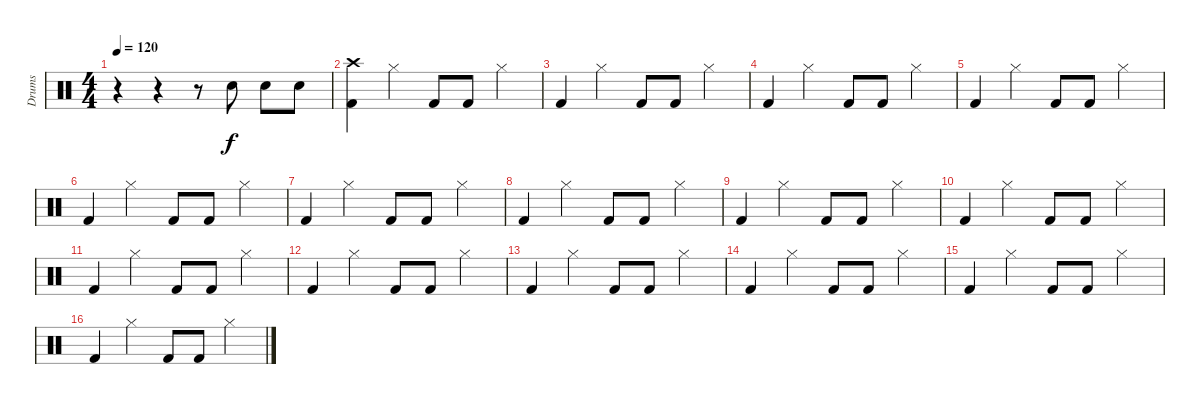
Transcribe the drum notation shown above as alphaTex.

\track ("Drums" "Drums") {instrument percussion}
\staff {score}
\articulation defaults
\ts (4 4)
\tempo 120
\clef neutral
\ks c
r.4{dy f} r.4 r.8 "Snare (hit) 2".8 "Snare (hit) 2".8 "Electric Snare (hit)".8 |
("Kick (hit) 2" "Crash high (hit)").4 "Hi-Hat (closed)".4 "Kick (hit) 2".8 "Kick (hit) 2".8 "Hi-Hat (closed)".4 |
"Kick (hit) 2".4 "Hi-Hat (closed)".4 "Kick (hit) 2".8 "Kick (hit) 2".8 "Hi-Hat (closed)".4 |
"Kick (hit) 2".4 "Hi-Hat (closed)".4 "Kick (hit) 2".8 "Kick (hit) 2".8 "Hi-Hat (closed)".4 |
"Kick (hit) 2".4 "Hi-Hat (closed)".4 "Kick (hit) 2".8 "Kick (hit) 2".8 "Hi-Hat (closed)".4 |
"Kick (hit) 2".4 "Hi-Hat (closed)".4 "Kick (hit) 2".8 "Kick (hit) 2".8 "Hi-Hat (closed)".4 |
"Kick (hit) 2".4 "Hi-Hat (closed)".4 "Kick (hit) 2".8 "Kick (hit) 2".8 "Hi-Hat (closed)".4 |
"Kick (hit) 2".4 "Hi-Hat (closed)".4 "Kick (hit) 2".8 "Kick (hit) 2".8 "Hi-Hat (closed)".4 |
"Kick (hit) 2".4 "Hi-Hat (closed)".4 "Kick (hit) 2".8 "Kick (hit) 2".8 "Hi-Hat (closed)".4 |
"Kick (hit) 2".4 "Hi-Hat (closed)".4 "Kick (hit) 2".8 "Kick (hit) 2".8 "Hi-Hat (closed)".4 |
"Kick (hit) 2".4 "Hi-Hat (closed)".4 "Kick (hit) 2".8 "Kick (hit) 2".8 "Hi-Hat (closed)".4 |
"Kick (hit) 2".4 "Hi-Hat (closed)".4 "Kick (hit) 2".8 "Kick (hit) 2".8 "Hi-Hat (closed)".4 |
"Kick (hit) 2".4 "Hi-Hat (closed)".4 "Kick (hit) 2".8 "Kick (hit) 2".8 "Hi-Hat (closed)".4 |
"Kick (hit) 2".4 "Hi-Hat (closed)".4 "Kick (hit) 2".8 "Kick (hit) 2".8 "Hi-Hat (closed)".4 |
"Kick (hit) 2".4 "Hi-Hat (closed)".4 "Kick (hit) 2".8 "Kick (hit) 2".8 "Hi-Hat (closed)".4 |
"Kick (hit) 2".4 "Hi-Hat (closed)".4 "Kick (hit) 2".8 "Kick (hit) 2".8 "Hi-Hat (closed)".4
